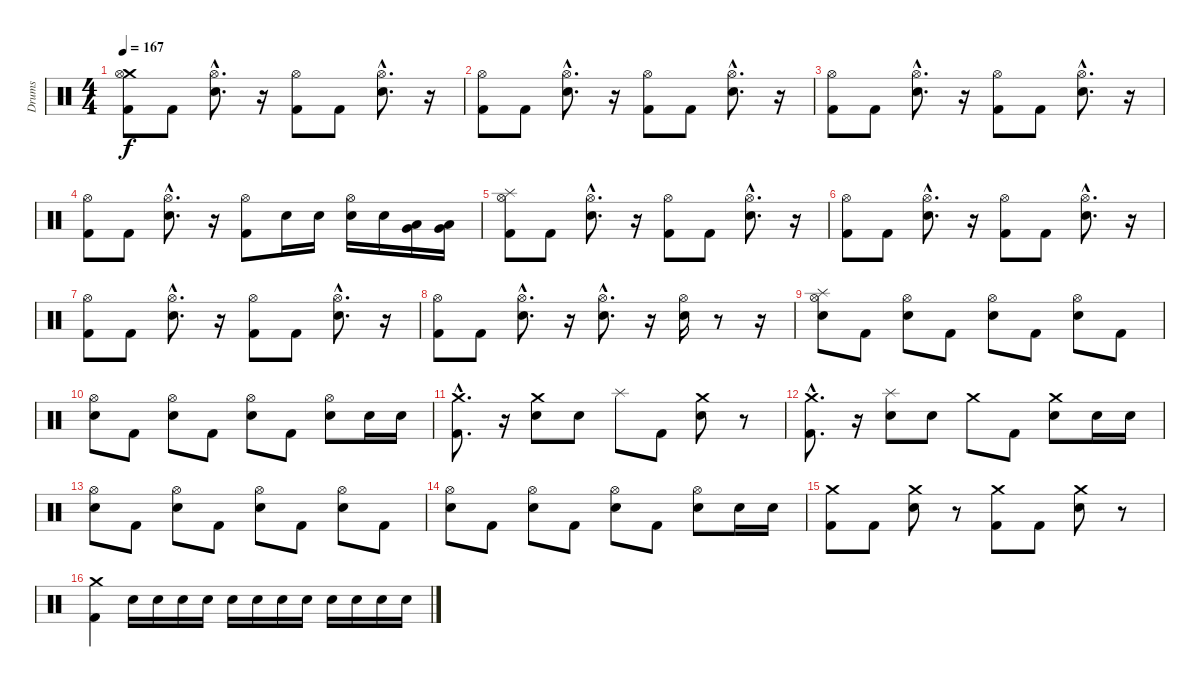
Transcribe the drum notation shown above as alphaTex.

\track ("Drums" "Drums") {instrument percussion}
\staff {score}
\articulation defaults
\ts (4 4)
\tempo 167
\clef neutral
\ks c
("Crash medium (hit)" "Kick (hit) 2" "Hi-Hat (open)").8{dy f} "Kick (hit) 2".8 ("Hi-Hat (open)"{hac} "Snare (hit) 2"{hac}).8{d} r.16 ("Kick (hit) 2" "Hi-Hat (open)").8 "Kick (hit) 2".8 ("Hi-Hat (open)"{hac} "Snare (hit) 2"{hac}).8{d} r.16 |
("Kick (hit) 2" "Hi-Hat (open)").8 "Kick (hit) 2".8 ("Hi-Hat (open)"{hac} "Snare (hit) 2"{hac}).8{d} r.16 ("Kick (hit) 2" "Hi-Hat (open)").8 "Kick (hit) 2".8 ("Hi-Hat (open)"{hac} "Snare (hit) 2"{hac}).8{d} r.16 |
("Hi-Hat (open)" "Kick (hit) 2").8 "Kick (hit) 2".8 ("Hi-Hat (open)"{hac} "Snare (hit) 2"{hac}).8{d} r.16 ("Kick (hit) 2" "Hi-Hat (open)").8 "Kick (hit) 2".8 ("Hi-Hat (open)"{hac} "Snare (hit) 2"{hac}).8{d} r.16 |
("Hi-Hat (open)" "Kick (hit) 2").8 "Kick (hit) 2".8 ("Hi-Hat (open)"{hac} "Snare (hit) 2"{hac}).8{d} r.16 ("Hi-Hat (open)" "Kick (hit) 2").8 "Snare (hit) 2".16 "Snare (hit) 2".16 ("Hi-Hat (open)" "Snare (hit) 2").16 "Snare (hit) 2".16 ("Very Low Tom (hit)" "Low Tom (hit)").16 ("Low Floor Tom (hit)" "Very Low Tom (hit)").16 |
("Kick (hit) 2" "Hi-Hat (open)" "Splash (hit)").8 "Kick (hit) 2".8 ("Hi-Hat (open)"{hac} "Snare (hit) 2"{hac}).8{d} r.16 ("Kick (hit) 2" "Hi-Hat (open)").8 "Kick (hit) 2".8 ("Hi-Hat (open)"{hac} "Snare (hit) 2"{hac}).8{d} r.16 |
("Kick (hit) 2" "Hi-Hat (open)").8 "Kick (hit) 2".8 ("Hi-Hat (open)"{hac} "Snare (hit) 2"{hac}).8{d} r.16 ("Kick (hit) 2" "Hi-Hat (open)").8 "Kick (hit) 2".8 ("Hi-Hat (open)"{hac} "Snare (hit) 2"{hac}).8{d} r.16 |
("Kick (hit) 2" "Hi-Hat (open)").8 "Kick (hit) 2".8 ("Hi-Hat (open)"{hac} "Snare (hit) 2"{hac}).8{d} r.16 ("Kick (hit) 2" "Hi-Hat (open)").8 "Kick (hit) 2".8 ("Hi-Hat (open)"{hac} "Snare (hit) 2"{hac}).8{d} r.16 |
("Kick (hit) 2" "Hi-Hat (open)").8 "Kick (hit) 2".8 ("Snare (hit) 2"{hac} "Hi-Hat (open)"{hac}).8{d} r.16 ("Snare (hit) 2"{hac} "Hi-Hat (open)"{hac}).8{d} r.16 ("Snare (hit) 2" "Hi-Hat (open)").16 r.8 r.16 |
("Hi-Hat (open)" "Snare (hit) 2" "Splash (hit)").8 "Kick (hit) 2".8 ("Hi-Hat (open)" "Snare (hit) 2").8 "Kick (hit) 2".8 ("Hi-Hat (open)" "Snare (hit) 2").8 "Kick (hit) 2".8 ("Hi-Hat (open)" "Snare (hit) 2").8 "Kick (hit) 2".8 |
("Snare (hit) 2" "Hi-Hat (open)").8 "Kick (hit) 2".8 ("Snare (hit) 2" "Hi-Hat (open)").8 "Kick (hit) 2".8 ("Snare (hit) 2" "Hi-Hat (open)").8 "Kick (hit) 2".8 ("Snare (hit) 2" "Hi-Hat (open)").8 "Snare (hit) 2".16 "Snare (hit) 2".16 |
("Kick (hit) 2"{hac} "Crash medium (hit)"{hac}).8{d} r.16 ("Snare (hit) 2" "Crash medium (hit)").8 "Snare (hit) 2".8 "Splash (hit)".8 "Kick (hit) 2".8 ("Snare (hit) 2" "Crash medium (hit)").8 r.8 |
("Kick (hit) 2"{hac} "Crash medium (hit)"{hac}).8{d} r.16 ("Snare (hit) 2" "Splash (hit)").8 "Snare (hit) 2".8 "Crash medium (hit)".8 "Kick (hit) 2".8 ("Snare (hit) 2" "Crash medium (hit)").8 "Snare (hit) 2".16 "Snare (hit) 2".16 |
("Hi-Hat (open)" "Snare (hit) 2").8 "Kick (hit) 2".8 ("Hi-Hat (open)" "Snare (hit) 2").8 "Kick (hit) 2".8 ("Hi-Hat (open)" "Snare (hit) 2").8 "Kick (hit) 2".8 ("Hi-Hat (open)" "Snare (hit) 2").8 "Kick (hit) 2".8 |
("Snare (hit) 2" "Hi-Hat (open)").8 "Kick (hit) 2".8 ("Snare (hit) 2" "Hi-Hat (open)").8 "Kick (hit) 2".8 ("Snare (hit) 2" "Hi-Hat (open)").8 "Kick (hit) 2".8 ("Snare (hit) 2" "Hi-Hat (open)").8 "Snare (hit) 2".16 "Snare (hit) 2".16 |
("Kick (hit) 2" "Crash medium (hit)").8 "Kick (hit) 2".8 ("Snare (hit) 2" "Crash medium (hit)").8 r.8 ("Crash medium (hit)" "Kick (hit) 2").8 "Kick (hit) 2".8 ("Crash medium (hit)" "Snare (hit) 2").8 r.8 |
("Kick (hit) 2" "Crash medium (hit)").4 "Snare (hit) 2".16 "Snare (hit) 2".16 "Snare (hit) 2".16 "Snare (hit) 2".16 "Snare (hit) 2".16 "Snare (hit) 2".16 "Snare (hit) 2".16 "Snare (hit) 2".16 "Snare (hit) 2".16 "Snare (hit) 2".16 "Snare (hit) 2".16 "Snare (hit) 2".16
